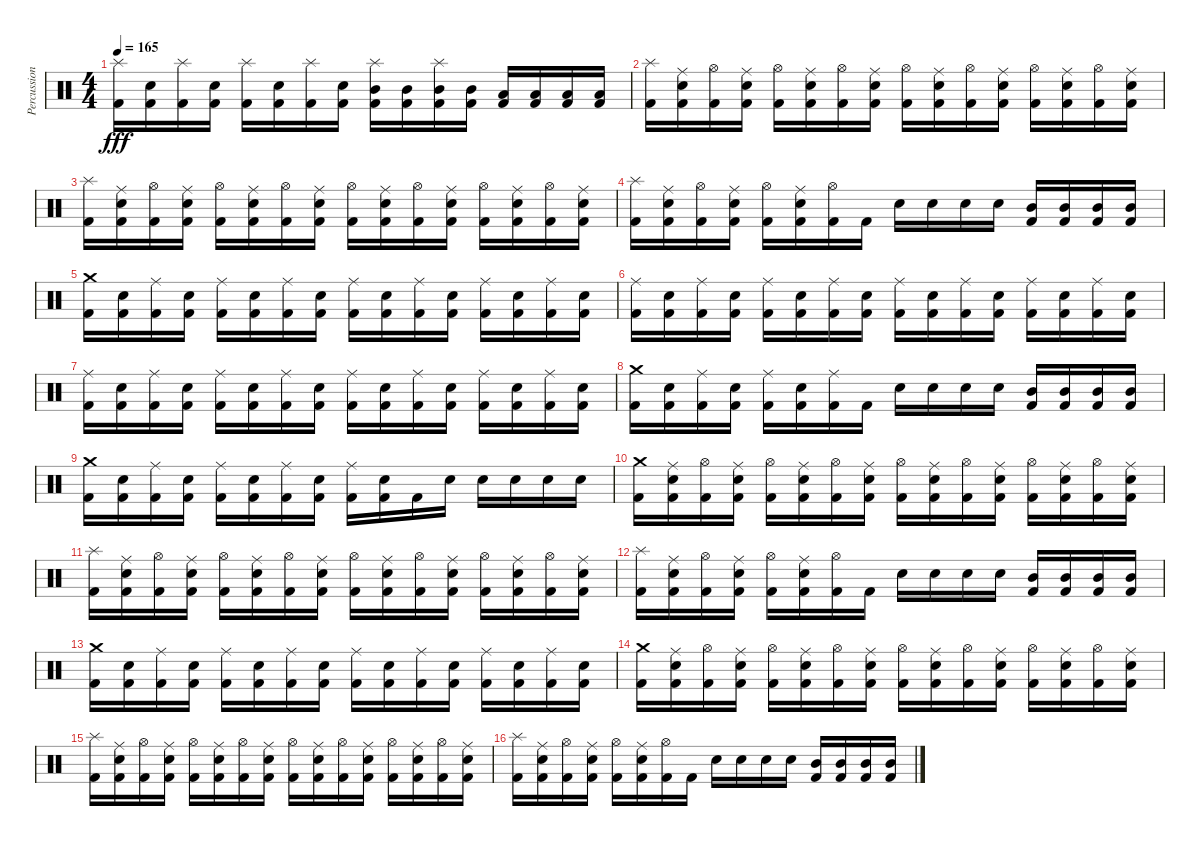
\track ("Percussions" "Percussion") {instrument percussion}
\staff {score}
\articulation defaults
\ts (4 4)
\tempo 165
\clef neutral
\ks c
("Splash (hit)" "Kick (hit) 2").16{dy fff} ("Electric Snare (hit)" "Kick (hit) 2").16 ("Splash (hit)" "Kick (hit) 2").16 ("Electric Snare (hit)" "Kick (hit) 2").16 ("Splash (hit)" "Kick (hit) 2").16 ("Electric Snare (hit)" "Kick (hit) 2").16 ("Splash (hit)" "Kick (hit) 2").16 ("Electric Snare (hit)" "Kick (hit) 2").16 ("Splash (hit)" "Mid Tom (hit)" "Kick (hit) 2").16 ("Mid Tom (hit)" "Kick (hit) 2").16 ("Splash (hit)" "Mid Tom (hit)" "Kick (hit) 2").16 ("Mid Tom (hit)" "Kick (hit) 2").16 ("Low Tom (hit)" "Kick (hit) 2").16 ("Low Tom (hit)" "Kick (hit) 2").16 ("Low Tom (hit)" "Kick (hit) 2").16 ("Low Tom (hit)" "Kick (hit) 2").16 |
("Splash (hit)" "Kick (hit) 2").16 ("Ride (middle)" "Electric Snare (hit)" "Kick (hit) 2").16 ("Hi-Hat (open)" "Kick (hit) 2").16 ("Ride (middle)" "Electric Snare (hit)" "Kick (hit) 2").16 ("Hi-Hat (open)" "Kick (hit) 2").16 ("Ride (middle)" "Electric Snare (hit)" "Kick (hit) 2").16 ("Hi-Hat (open)" "Kick (hit) 2").16 ("Ride (middle)" "Electric Snare (hit)" "Kick (hit) 2").16 ("Hi-Hat (open)" "Kick (hit) 2").16 ("Ride (middle)" "Electric Snare (hit)" "Kick (hit) 2").16 ("Hi-Hat (open)" "Kick (hit) 2").16 ("Ride (middle)" "Electric Snare (hit)" "Kick (hit) 2").16 ("Hi-Hat (open)" "Kick (hit) 2").16 ("Ride (middle)" "Electric Snare (hit)" "Kick (hit) 2").16 ("Hi-Hat (open)" "Kick (hit) 2").16 ("Ride (middle)" "Electric Snare (hit)" "Kick (hit) 2").16 |
("Splash (hit)" "Kick (hit) 2").16 ("Ride (middle)" "Electric Snare (hit)" "Kick (hit) 2").16 ("Hi-Hat (open)" "Kick (hit) 2").16 ("Ride (middle)" "Electric Snare (hit)" "Kick (hit) 2").16 ("Hi-Hat (open)" "Kick (hit) 2").16 ("Ride (middle)" "Electric Snare (hit)" "Kick (hit) 2").16 ("Hi-Hat (open)" "Kick (hit) 2").16 ("Ride (middle)" "Electric Snare (hit)" "Kick (hit) 2").16 ("Hi-Hat (open)" "Kick (hit) 2").16 ("Ride (middle)" "Electric Snare (hit)" "Kick (hit) 2").16 ("Hi-Hat (open)" "Kick (hit) 2").16 ("Ride (middle)" "Electric Snare (hit)" "Kick (hit) 2").16 ("Hi-Hat (open)" "Kick (hit) 2").16 ("Ride (middle)" "Electric Snare (hit)" "Kick (hit) 2").16 ("Hi-Hat (open)" "Kick (hit) 2").16 ("Ride (middle)" "Electric Snare (hit)" "Kick (hit) 2").16 |
("Splash (hit)" "Kick (hit) 2").16 ("Ride (middle)" "Electric Snare (hit)" "Kick (hit) 2").16 ("Hi-Hat (open)" "Kick (hit) 2").16 ("Ride (middle)" "Electric Snare (hit)" "Kick (hit) 2").16 ("Hi-Hat (open)" "Kick (hit) 2").16 ("Ride (middle)" "Electric Snare (hit)" "Kick (hit) 2").16 ("Hi-Hat (open)" "Kick (hit) 2").16 "Kick (hit) 2".16 "Electric Snare (hit)".16 "Electric Snare (hit)".16 "Electric Snare (hit)".16 "Electric Snare (hit)".16 ("Mid Tom (hit)" "Kick (hit) 2").16 ("Mid Tom (hit)" "Kick (hit) 2").16 ("Mid Tom (hit)" "Kick (hit) 2").16 ("Mid Tom (hit)" "Kick (hit) 2").16 |
("Crash medium (hit)" "Kick (hit) 2").16 ("Electric Snare (hit)" "Kick (hit) 2").16 ("Ride (middle)" "Kick (hit) 2").16 ("Electric Snare (hit)" "Kick (hit) 2").16 ("Ride (middle)" "Kick (hit) 2").16 ("Electric Snare (hit)" "Kick (hit) 2").16 ("Ride (middle)" "Kick (hit) 2").16 ("Electric Snare (hit)" "Kick (hit) 2").16 ("Ride (middle)" "Kick (hit) 2").16 ("Electric Snare (hit)" "Kick (hit) 2").16 ("Ride (middle)" "Kick (hit) 2").16 ("Electric Snare (hit)" "Kick (hit) 2").16 ("Ride (middle)" "Kick (hit) 2").16 ("Electric Snare (hit)" "Kick (hit) 2").16 ("Ride (middle)" "Kick (hit) 2").16 ("Electric Snare (hit)" "Kick (hit) 2").16 |
("Ride (middle)" "Kick (hit) 2").16 ("Electric Snare (hit)" "Kick (hit) 2").16 ("Ride (middle)" "Kick (hit) 2").16 ("Electric Snare (hit)" "Kick (hit) 2").16 ("Ride (middle)" "Kick (hit) 2").16 ("Electric Snare (hit)" "Kick (hit) 2").16 ("Ride (middle)" "Kick (hit) 2").16 ("Electric Snare (hit)" "Kick (hit) 2").16 ("Ride (middle)" "Kick (hit) 2").16 ("Electric Snare (hit)" "Kick (hit) 2").16 ("Ride (middle)" "Kick (hit) 2").16 ("Electric Snare (hit)" "Kick (hit) 2").16 ("Ride (middle)" "Kick (hit) 2").16 ("Electric Snare (hit)" "Kick (hit) 2").16 ("Ride (middle)" "Kick (hit) 2").16 ("Electric Snare (hit)" "Kick (hit) 2").16 |
("Ride (middle)" "Kick (hit) 2").16 ("Electric Snare (hit)" "Kick (hit) 2").16 ("Ride (middle)" "Kick (hit) 2").16 ("Electric Snare (hit)" "Kick (hit) 2").16 ("Ride (middle)" "Kick (hit) 2").16 ("Electric Snare (hit)" "Kick (hit) 2").16 ("Ride (middle)" "Kick (hit) 2").16 ("Electric Snare (hit)" "Kick (hit) 2").16 ("Ride (middle)" "Kick (hit) 2").16 ("Electric Snare (hit)" "Kick (hit) 2").16 ("Ride (middle)" "Kick (hit) 2").16 ("Electric Snare (hit)" "Kick (hit) 2").16 ("Ride (middle)" "Kick (hit) 2").16 ("Electric Snare (hit)" "Kick (hit) 2").16 ("Ride (middle)" "Kick (hit) 2").16 ("Electric Snare (hit)" "Kick (hit) 2").16 |
("Crash medium (hit)" "Kick (hit) 2").16 ("Electric Snare (hit)" "Kick (hit) 2").16 ("Ride (middle)" "Kick (hit) 2").16 ("Electric Snare (hit)" "Kick (hit) 2").16 ("Ride (middle)" "Kick (hit) 2").16 ("Electric Snare (hit)" "Kick (hit) 2").16 ("Ride (middle)" "Kick (hit) 2").16 "Kick (hit) 2".16 "Electric Snare (hit)".16 "Electric Snare (hit)".16 "Electric Snare (hit)".16 "Electric Snare (hit)".16 ("Mid Tom (hit)" "Kick (hit) 2").16 ("Mid Tom (hit)" "Kick (hit) 2").16 ("Mid Tom (hit)" "Kick (hit) 2").16 ("Mid Tom (hit)" "Kick (hit) 2").16 |
("Crash medium (hit)" "Kick (hit) 2").16 ("Electric Snare (hit)" "Kick (hit) 2").16 ("Ride (middle)" "Kick (hit) 2").16 ("Electric Snare (hit)" "Kick (hit) 2").16 ("Ride (middle)" "Kick (hit) 2").16 ("Electric Snare (hit)" "Kick (hit) 2").16 ("Ride (middle)" "Kick (hit) 2").16 ("Electric Snare (hit)" "Kick (hit) 2").16 ("Ride (middle)" "Kick (hit) 2").16 ("Electric Snare (hit)" "Kick (hit) 2").16 "Kick (hit) 2".16 "Electric Snare (hit)".16 "Electric Snare (hit)".16 "Electric Snare (hit)".16 "Electric Snare (hit)".16 "Electric Snare (hit)".16 |
("Crash medium (hit)" "Kick (hit) 2").16 ("Ride (middle)" "Electric Snare (hit)" "Kick (hit) 2").16 ("Hi-Hat (open)" "Kick (hit) 2").16 ("Ride (middle)" "Electric Snare (hit)" "Kick (hit) 2").16 ("Hi-Hat (open)" "Kick (hit) 2").16 ("Ride (middle)" "Electric Snare (hit)" "Kick (hit) 2").16 ("Hi-Hat (open)" "Kick (hit) 2").16 ("Ride (middle)" "Electric Snare (hit)" "Kick (hit) 2").16 ("Hi-Hat (open)" "Kick (hit) 2").16 ("Ride (middle)" "Electric Snare (hit)" "Kick (hit) 2").16 ("Hi-Hat (open)" "Kick (hit) 2").16 ("Ride (middle)" "Electric Snare (hit)" "Kick (hit) 2").16 ("Hi-Hat (open)" "Kick (hit) 2").16 ("Ride (middle)" "Electric Snare (hit)" "Kick (hit) 2").16 ("Hi-Hat (open)" "Kick (hit) 2").16 ("Ride (middle)" "Electric Snare (hit)" "Kick (hit) 2").16 |
("Splash (hit)" "Kick (hit) 2").16 ("Ride (middle)" "Electric Snare (hit)" "Kick (hit) 2").16 ("Hi-Hat (open)" "Kick (hit) 2").16 ("Ride (middle)" "Electric Snare (hit)" "Kick (hit) 2").16 ("Hi-Hat (open)" "Kick (hit) 2").16 ("Ride (middle)" "Electric Snare (hit)" "Kick (hit) 2").16 ("Hi-Hat (open)" "Kick (hit) 2").16 ("Ride (middle)" "Electric Snare (hit)" "Kick (hit) 2").16 ("Hi-Hat (open)" "Kick (hit) 2").16 ("Ride (middle)" "Electric Snare (hit)" "Kick (hit) 2").16 ("Hi-Hat (open)" "Kick (hit) 2").16 ("Ride (middle)" "Electric Snare (hit)" "Kick (hit) 2").16 ("Hi-Hat (open)" "Kick (hit) 2").16 ("Ride (middle)" "Electric Snare (hit)" "Kick (hit) 2").16 ("Hi-Hat (open)" "Kick (hit) 2").16 ("Ride (middle)" "Electric Snare (hit)" "Kick (hit) 2").16 |
("Splash (hit)" "Kick (hit) 2").16 ("Ride (middle)" "Electric Snare (hit)" "Kick (hit) 2").16 ("Hi-Hat (open)" "Kick (hit) 2").16 ("Ride (middle)" "Electric Snare (hit)" "Kick (hit) 2").16 ("Hi-Hat (open)" "Kick (hit) 2").16 ("Ride (middle)" "Electric Snare (hit)" "Kick (hit) 2").16 ("Hi-Hat (open)" "Kick (hit) 2").16 "Kick (hit) 2".16 "Electric Snare (hit)".16 "Electric Snare (hit)".16 "Electric Snare (hit)".16 "Electric Snare (hit)".16 ("Mid Tom (hit)" "Kick (hit) 2").16 ("Mid Tom (hit)" "Kick (hit) 2").16 ("Mid Tom (hit)" "Kick (hit) 2").16 ("Mid Tom (hit)" "Kick (hit) 2").16 |
("Crash medium (hit)" "Kick (hit) 2").16 ("Electric Snare (hit)" "Kick (hit) 2").16 ("Ride (middle)" "Kick (hit) 2").16 ("Electric Snare (hit)" "Kick (hit) 2").16 ("Ride (middle)" "Kick (hit) 2").16 ("Electric Snare (hit)" "Kick (hit) 2").16 ("Ride (middle)" "Kick (hit) 2").16 ("Electric Snare (hit)" "Kick (hit) 2").16 ("Ride (middle)" "Kick (hit) 2").16 ("Electric Snare (hit)" "Kick (hit) 2").16 ("Ride (middle)" "Kick (hit) 2").16 ("Electric Snare (hit)" "Kick (hit) 2").16 ("Ride (middle)" "Kick (hit) 2").16 ("Electric Snare (hit)" "Kick (hit) 2").16 ("Ride (middle)" "Kick (hit) 2").16 ("Electric Snare (hit)" "Kick (hit) 2").16 |
("Crash medium (hit)" "Kick (hit) 2").16 ("Ride (middle)" "Electric Snare (hit)" "Kick (hit) 2").16 ("Hi-Hat (open)" "Kick (hit) 2").16 ("Ride (middle)" "Electric Snare (hit)" "Kick (hit) 2").16 ("Hi-Hat (open)" "Kick (hit) 2").16 ("Ride (middle)" "Electric Snare (hit)" "Kick (hit) 2").16 ("Hi-Hat (open)" "Kick (hit) 2").16 ("Ride (middle)" "Electric Snare (hit)" "Kick (hit) 2").16 ("Hi-Hat (open)" "Kick (hit) 2").16 ("Ride (middle)" "Electric Snare (hit)" "Kick (hit) 2").16 ("Hi-Hat (open)" "Kick (hit) 2").16 ("Ride (middle)" "Electric Snare (hit)" "Kick (hit) 2").16 ("Hi-Hat (open)" "Kick (hit) 2").16 ("Ride (middle)" "Electric Snare (hit)" "Kick (hit) 2").16 ("Hi-Hat (open)" "Kick (hit) 2").16 ("Ride (middle)" "Electric Snare (hit)" "Kick (hit) 2").16 |
("Splash (hit)" "Kick (hit) 2").16 ("Ride (middle)" "Electric Snare (hit)" "Kick (hit) 2").16 ("Hi-Hat (open)" "Kick (hit) 2").16 ("Ride (middle)" "Electric Snare (hit)" "Kick (hit) 2").16 ("Hi-Hat (open)" "Kick (hit) 2").16 ("Ride (middle)" "Electric Snare (hit)" "Kick (hit) 2").16 ("Hi-Hat (open)" "Kick (hit) 2").16 ("Ride (middle)" "Electric Snare (hit)" "Kick (hit) 2").16 ("Hi-Hat (open)" "Kick (hit) 2").16 ("Ride (middle)" "Electric Snare (hit)" "Kick (hit) 2").16 ("Hi-Hat (open)" "Kick (hit) 2").16 ("Ride (middle)" "Electric Snare (hit)" "Kick (hit) 2").16 ("Hi-Hat (open)" "Kick (hit) 2").16 ("Ride (middle)" "Electric Snare (hit)" "Kick (hit) 2").16 ("Hi-Hat (open)" "Kick (hit) 2").16 ("Ride (middle)" "Electric Snare (hit)" "Kick (hit) 2").16 |
("Splash (hit)" "Kick (hit) 2").16 ("Ride (middle)" "Electric Snare (hit)" "Kick (hit) 2").16 ("Hi-Hat (open)" "Kick (hit) 2").16 ("Ride (middle)" "Electric Snare (hit)" "Kick (hit) 2").16 ("Hi-Hat (open)" "Kick (hit) 2").16 ("Ride (middle)" "Electric Snare (hit)" "Kick (hit) 2").16 ("Hi-Hat (open)" "Kick (hit) 2").16 "Kick (hit) 2".16 "Electric Snare (hit)".16 "Electric Snare (hit)".16 "Electric Snare (hit)".16 "Electric Snare (hit)".16 ("Mid Tom (hit)" "Kick (hit) 2").16 ("Mid Tom (hit)" "Kick (hit) 2").16 ("Mid Tom (hit)" "Kick (hit) 2").16 ("Mid Tom (hit)" "Kick (hit) 2").16
